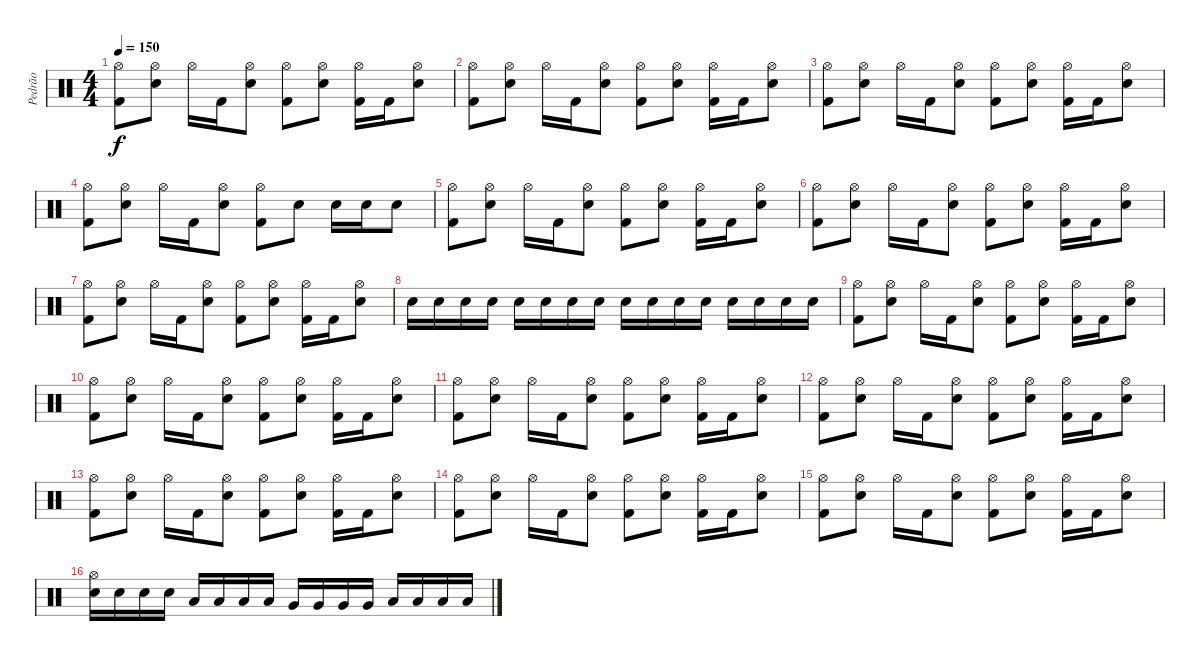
\track ("Pedrão" "Pedrão") {instrument percussion}
\staff {score}
\articulation defaults
\ts (4 4)
\tempo 150
\clef neutral
\ks c
("Hi-Hat (open)" "Kick (hit) 2").8{dy f} ("Hi-Hat (open)" "Snare (hit) 2").8 "Hi-Hat (open)".16 "Kick (hit) 2".16 ("Hi-Hat (open)" "Snare (hit) 2").8 ("Hi-Hat (open)" "Kick (hit) 2").8 ("Hi-Hat (open)" "Snare (hit) 2").8 ("Hi-Hat (open)" "Kick (hit) 2").16 "Kick (hit) 2".16 ("Hi-Hat (open)" "Snare (hit) 2").8 |
("Hi-Hat (open)" "Kick (hit) 2").8 ("Hi-Hat (open)" "Snare (hit) 2").8 "Hi-Hat (open)".16 "Kick (hit) 2".16 ("Hi-Hat (open)" "Snare (hit) 2").8 ("Hi-Hat (open)" "Kick (hit) 2").8 ("Hi-Hat (open)" "Snare (hit) 2").8 ("Hi-Hat (open)" "Kick (hit) 2").16 "Kick (hit) 2".16 ("Hi-Hat (open)" "Snare (hit) 2").8 |
("Hi-Hat (open)" "Kick (hit) 2").8 ("Hi-Hat (open)" "Snare (hit) 2").8 "Hi-Hat (open)".16 "Kick (hit) 2".16 ("Hi-Hat (open)" "Snare (hit) 2").8 ("Hi-Hat (open)" "Kick (hit) 2").8 ("Hi-Hat (open)" "Snare (hit) 2").8 ("Hi-Hat (open)" "Kick (hit) 2").16 "Kick (hit) 2".16 ("Hi-Hat (open)" "Snare (hit) 2").8 |
("Hi-Hat (open)" "Kick (hit) 2").8 ("Hi-Hat (open)" "Snare (hit) 2").8 "Hi-Hat (open)".16 "Kick (hit) 2".16 ("Hi-Hat (open)" "Snare (hit) 2").8 ("Hi-Hat (open)" "Kick (hit) 2").8 "Snare (hit) 2".8 "Snare (hit) 2".16 "Snare (hit) 2".16 "Snare (hit) 2".8 |
("Hi-Hat (open)" "Kick (hit) 2").8 ("Hi-Hat (open)" "Snare (hit) 2").8 "Hi-Hat (open)".16 "Kick (hit) 2".16 ("Hi-Hat (open)" "Snare (hit) 2").8 ("Hi-Hat (open)" "Kick (hit) 2").8 ("Hi-Hat (open)" "Snare (hit) 2").8 ("Hi-Hat (open)" "Kick (hit) 2").16 "Kick (hit) 2".16 ("Hi-Hat (open)" "Snare (hit) 2").8 |
("Hi-Hat (open)" "Kick (hit) 2").8 ("Hi-Hat (open)" "Snare (hit) 2").8 "Hi-Hat (open)".16 "Kick (hit) 2".16 ("Hi-Hat (open)" "Snare (hit) 2").8 ("Hi-Hat (open)" "Kick (hit) 2").8 ("Hi-Hat (open)" "Snare (hit) 2").8 ("Hi-Hat (open)" "Kick (hit) 2").16 "Kick (hit) 2".16 ("Hi-Hat (open)" "Snare (hit) 2").8 |
("Hi-Hat (open)" "Kick (hit) 2").8 ("Hi-Hat (open)" "Snare (hit) 2").8 "Hi-Hat (open)".16 "Kick (hit) 2".16 ("Hi-Hat (open)" "Snare (hit) 2").8 ("Hi-Hat (open)" "Kick (hit) 2").8 ("Hi-Hat (open)" "Snare (hit) 2").8 ("Hi-Hat (open)" "Kick (hit) 2").16 "Kick (hit) 2".16 ("Hi-Hat (open)" "Snare (hit) 2").8 |
"Snare (hit) 2".16 "Snare (hit) 2".16 "Snare (hit) 2".16 "Snare (hit) 2".16 "Snare (hit) 2".16 "Snare (hit) 2".16 "Snare (hit) 2".16 "Snare (hit) 2".16 "Snare (hit) 2".16 "Snare (hit) 2".16 "Snare (hit) 2".16 "Snare (hit) 2".16 "Snare (hit) 2".16 "Snare (hit) 2".16 "Snare (hit) 2".16 "Snare (hit) 2".16 |
("Hi-Hat (open)" "Kick (hit) 2").8 ("Hi-Hat (open)" "Snare (hit) 2").8 "Hi-Hat (open)".16 "Kick (hit) 2".16 ("Hi-Hat (open)" "Snare (hit) 2").8 ("Hi-Hat (open)" "Kick (hit) 2").8 ("Hi-Hat (open)" "Snare (hit) 2").8 ("Hi-Hat (open)" "Kick (hit) 2").16 "Kick (hit) 2".16 ("Hi-Hat (open)" "Snare (hit) 2").8 |
("Hi-Hat (open)" "Kick (hit) 2").8 ("Hi-Hat (open)" "Snare (hit) 2").8 "Hi-Hat (open)".16 "Kick (hit) 2".16 ("Hi-Hat (open)" "Snare (hit) 2").8 ("Hi-Hat (open)" "Kick (hit) 2").8 ("Hi-Hat (open)" "Snare (hit) 2").8 ("Hi-Hat (open)" "Kick (hit) 2").16 "Kick (hit) 2".16 ("Hi-Hat (open)" "Snare (hit) 2").8 |
("Hi-Hat (open)" "Kick (hit) 2").8 ("Hi-Hat (open)" "Snare (hit) 2").8 "Hi-Hat (open)".16 "Kick (hit) 2".16 ("Hi-Hat (open)" "Snare (hit) 2").8 ("Hi-Hat (open)" "Kick (hit) 2").8 ("Hi-Hat (open)" "Snare (hit) 2").8 ("Hi-Hat (open)" "Kick (hit) 2").16 "Kick (hit) 2".16 ("Hi-Hat (open)" "Snare (hit) 2").8 |
("Hi-Hat (open)" "Kick (hit) 2").8 ("Hi-Hat (open)" "Snare (hit) 2").8 "Hi-Hat (open)".16 "Kick (hit) 2".16 ("Hi-Hat (open)" "Snare (hit) 2").8 ("Hi-Hat (open)" "Kick (hit) 2").8 ("Hi-Hat (open)" "Snare (hit) 2").8 ("Hi-Hat (open)" "Kick (hit) 2").16 "Kick (hit) 2".16 ("Hi-Hat (open)" "Snare (hit) 2").8 |
("Hi-Hat (open)" "Kick (hit) 2").8 ("Hi-Hat (open)" "Snare (hit) 2").8 "Hi-Hat (open)".16 "Kick (hit) 2".16 ("Hi-Hat (open)" "Snare (hit) 2").8 ("Hi-Hat (open)" "Kick (hit) 2").8 ("Hi-Hat (open)" "Snare (hit) 2").8 ("Hi-Hat (open)" "Kick (hit) 2").16 "Kick (hit) 2".16 ("Hi-Hat (open)" "Snare (hit) 2").8 |
("Hi-Hat (open)" "Kick (hit) 2").8 ("Hi-Hat (open)" "Snare (hit) 2").8 "Hi-Hat (open)".16 "Kick (hit) 2".16 ("Hi-Hat (open)" "Snare (hit) 2").8 ("Hi-Hat (open)" "Kick (hit) 2").8 ("Hi-Hat (open)" "Snare (hit) 2").8 ("Hi-Hat (open)" "Kick (hit) 2").16 "Kick (hit) 2".16 ("Hi-Hat (open)" "Snare (hit) 2").8 |
("Hi-Hat (open)" "Kick (hit) 2").8 ("Hi-Hat (open)" "Snare (hit) 2").8 "Hi-Hat (open)".16 "Kick (hit) 2".16 ("Hi-Hat (open)" "Snare (hit) 2").8 ("Hi-Hat (open)" "Kick (hit) 2").8 ("Hi-Hat (open)" "Snare (hit) 2").8 ("Hi-Hat (open)" "Kick (hit) 2").16 "Kick (hit) 2".16 ("Hi-Hat (open)" "Snare (hit) 2").8 |
("Hi-Hat (open)" "Electric Snare (hit)").16 "Electric Snare (hit)".16 "Electric Snare (hit)".16 "Electric Snare (hit)".16 "Low Tom (hit)".16 "Low Tom (hit)".16 "Low Tom (hit)".16 "Low Tom (hit)".16 "Very Low Tom (hit)".16 "Very Low Tom (hit)".16 "Very Low Tom (hit)".16 "Very Low Tom (hit)".16 "Low Floor Tom (hit)".16 "Low Floor Tom (hit)".16 "Low Floor Tom (hit)".16 "Low Floor Tom (hit)".16
